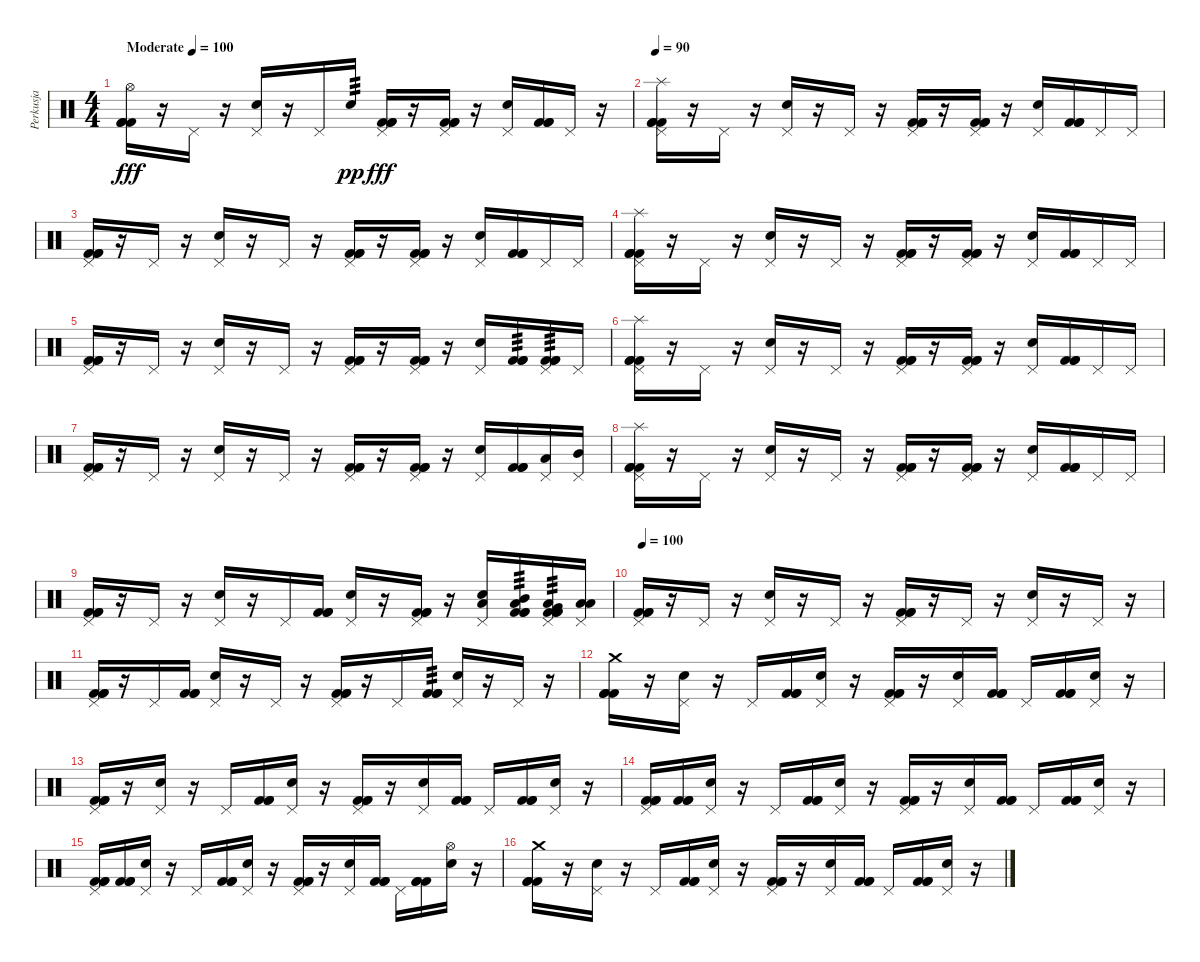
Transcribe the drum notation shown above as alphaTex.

\track ("Perkusja" "Perkusja") {instrument percussion}
\staff {score}
\articulation defaults
\ts (4 4)
\tempo (100 "Moderate")
\tempo 90
\tempo (100 "Moderate")
\clef neutral
\ks c
("Hi-Hat (open)" "Kick (hit) 2" "Kick (hit) 2" "Kick (hit) 2").16{dy fff} r.16 "Pedal Hi-Hat (hit)".16 r.16 ("Snare (hit) 2" "Pedal Hi-Hat (hit)").16 r.16 "Pedal Hi-Hat (hit)".16 "Snare (hit) 2".16{tp 3 dy pp} ("Pedal Hi-Hat (hit)" "Kick (hit) 2" "Kick (hit) 2" "Kick (hit) 2").16{dy fff} r.16 ("Pedal Hi-Hat (hit)" "Kick (hit) 2" "Kick (hit) 2" "Kick (hit) 2").16 r.16 ("Snare (hit) 2" "Pedal Hi-Hat (hit)").16 ("Kick (hit) 2" "Kick (hit) 2" "Kick (hit) 2").16 "Pedal Hi-Hat (hit)".16 r.16 |
\tempo 90
("Splash (hit)" "Pedal Hi-Hat (hit)" "Kick (hit) 2" "Kick (hit) 2" "Kick (hit) 2").16 r.16 "Pedal Hi-Hat (hit)".16 r.16 ("Snare (hit) 2" "Pedal Hi-Hat (hit)").16 r.16 "Pedal Hi-Hat (hit)".16 r.16 ("Pedal Hi-Hat (hit)" "Kick (hit) 2" "Kick (hit) 2" "Kick (hit) 2").16 r.16 ("Pedal Hi-Hat (hit)" "Kick (hit) 2" "Kick (hit) 2" "Kick (hit) 2").16 r.16 ("Snare (hit) 2" "Pedal Hi-Hat (hit)").16 ("Kick (hit) 2" "Kick (hit) 2" "Kick (hit) 2").16 "Pedal Hi-Hat (hit)".16 "Pedal Hi-Hat (hit)".16 |
("Pedal Hi-Hat (hit)" "Kick (hit) 2" "Kick (hit) 2" "Kick (hit) 2").16 r.16 "Pedal Hi-Hat (hit)".16 r.16 ("Snare (hit) 2" "Pedal Hi-Hat (hit)").16 r.16 "Pedal Hi-Hat (hit)".16 r.16 ("Pedal Hi-Hat (hit)" "Kick (hit) 2" "Kick (hit) 2" "Kick (hit) 2").16 r.16 ("Pedal Hi-Hat (hit)" "Kick (hit) 2" "Kick (hit) 2" "Kick (hit) 2").16 r.16 ("Snare (hit) 2" "Pedal Hi-Hat (hit)").16 ("Kick (hit) 2" "Kick (hit) 2" "Kick (hit) 2").16 "Pedal Hi-Hat (hit)".16 "Pedal Hi-Hat (hit)".16 |
("Splash (hit)" "Pedal Hi-Hat (hit)" "Kick (hit) 2" "Kick (hit) 2" "Kick (hit) 2").16 r.16 "Pedal Hi-Hat (hit)".16 r.16 ("Snare (hit) 2" "Pedal Hi-Hat (hit)").16 r.16 "Pedal Hi-Hat (hit)".16 r.16 ("Pedal Hi-Hat (hit)" "Kick (hit) 2" "Kick (hit) 2" "Kick (hit) 2").16 r.16 ("Pedal Hi-Hat (hit)" "Kick (hit) 2" "Kick (hit) 2" "Kick (hit) 2").16 r.16 ("Snare (hit) 2" "Pedal Hi-Hat (hit)").16 ("Kick (hit) 2" "Kick (hit) 2" "Kick (hit) 2").16 "Pedal Hi-Hat (hit)".16 "Pedal Hi-Hat (hit)".16 |
("Pedal Hi-Hat (hit)" "Kick (hit) 2" "Kick (hit) 2" "Kick (hit) 2").16 r.16 "Pedal Hi-Hat (hit)".16 r.16 ("Snare (hit) 2" "Pedal Hi-Hat (hit)").16 r.16 "Pedal Hi-Hat (hit)".16 r.16 ("Pedal Hi-Hat (hit)" "Kick (hit) 2" "Kick (hit) 2" "Kick (hit) 2").16 r.16 ("Pedal Hi-Hat (hit)" "Kick (hit) 2" "Kick (hit) 2" "Kick (hit) 2").16 r.16 ("Snare (hit) 2" "Pedal Hi-Hat (hit)").16 ("Kick (hit) 2" "Kick (hit) 2" "Kick (hit) 2").16{tp 3} ("Pedal Hi-Hat (hit)" "Kick (hit) 2" "Kick (hit) 2" "Kick (hit) 2").16{tp 3} "Pedal Hi-Hat (hit)".16 |
("Splash (hit)" "Pedal Hi-Hat (hit)" "Kick (hit) 2" "Kick (hit) 2" "Kick (hit) 2").16 r.16 "Pedal Hi-Hat (hit)".16 r.16 ("Snare (hit) 2" "Pedal Hi-Hat (hit)").16 r.16 "Pedal Hi-Hat (hit)".16 r.16 ("Pedal Hi-Hat (hit)" "Kick (hit) 2" "Kick (hit) 2" "Kick (hit) 2").16 r.16 ("Pedal Hi-Hat (hit)" "Kick (hit) 2" "Kick (hit) 2" "Kick (hit) 2").16 r.16 ("Snare (hit) 2" "Pedal Hi-Hat (hit)").16 ("Kick (hit) 2" "Kick (hit) 2" "Kick (hit) 2").16 "Pedal Hi-Hat (hit)".16 "Pedal Hi-Hat (hit)".16 |
("Pedal Hi-Hat (hit)" "Kick (hit) 2" "Kick (hit) 2" "Kick (hit) 2").16 r.16 "Pedal Hi-Hat (hit)".16 r.16 ("Snare (hit) 2" "Pedal Hi-Hat (hit)").16 r.16 "Pedal Hi-Hat (hit)".16 r.16 ("Pedal Hi-Hat (hit)" "Kick (hit) 2" "Kick (hit) 2" "Kick (hit) 2").16 r.16 ("Pedal Hi-Hat (hit)" "Kick (hit) 2" "Kick (hit) 2" "Kick (hit) 2").16 r.16 ("Snare (hit) 2" "Pedal Hi-Hat (hit)").16 ("Kick (hit) 2" "Kick (hit) 2" "Kick (hit) 2").16 ("Low Tom (hit)" "Pedal Hi-Hat (hit)").16 ("Mid Tom (hit)" "Pedal Hi-Hat (hit)").16 |
("Splash (hit)" "Pedal Hi-Hat (hit)" "Kick (hit) 2" "Kick (hit) 2" "Kick (hit) 2").16 r.16 "Pedal Hi-Hat (hit)".16 r.16 ("Snare (hit) 2" "Pedal Hi-Hat (hit)").16 r.16 "Pedal Hi-Hat (hit)".16 r.16 ("Pedal Hi-Hat (hit)" "Kick (hit) 2" "Kick (hit) 2" "Kick (hit) 2").16 r.16 ("Pedal Hi-Hat (hit)" "Kick (hit) 2" "Kick (hit) 2" "Kick (hit) 2").16 r.16 ("Snare (hit) 2" "Pedal Hi-Hat (hit)").16 ("Kick (hit) 2" "Kick (hit) 2" "Kick (hit) 2").16 "Pedal Hi-Hat (hit)".16 "Pedal Hi-Hat (hit)".16 |
("Pedal Hi-Hat (hit)" "Kick (hit) 2" "Kick (hit) 2" "Kick (hit) 2").16 r.16 "Pedal Hi-Hat (hit)".16 r.16 ("Snare (hit) 2" "Pedal Hi-Hat (hit)").16 r.16 "Pedal Hi-Hat (hit)".16 ("Kick (hit) 2" "Kick (hit) 2" "Kick (hit) 2").16 ("Snare (hit) 2" "Pedal Hi-Hat (hit)").16 r.16 ("Pedal Hi-Hat (hit)" "Kick (hit) 2" "Kick (hit) 2" "Kick (hit) 2").16 r.16 ("Snare (hit) 2" "Low Tom (hit)" "Pedal Hi-Hat (hit)").16 ("Low Tom (hit)" "Mid Tom (hit)" "Kick (hit) 2" "Kick (hit) 2" "Kick (hit) 2").16{tp 3} ("Low Tom (hit)" "Very Low Tom (hit)" "Pedal Hi-Hat (hit)" "Kick (hit) 2" "Kick (hit) 2" "Kick (hit) 2").16{tp 3} ("Low Tom (hit)" "Low Tom (hit)" "Pedal Hi-Hat (hit)").16 |
\tempo 100
("Pedal Hi-Hat (hit)" "Kick (hit) 2" "Kick (hit) 2" "Kick (hit) 2").16 r.16 "Pedal Hi-Hat (hit)".16 r.16 ("Snare (hit) 2" "Pedal Hi-Hat (hit)").16 r.16 "Pedal Hi-Hat (hit)".16 r.16 ("Pedal Hi-Hat (hit)" "Kick (hit) 2" "Kick (hit) 2" "Kick (hit) 2").16 r.16 "Pedal Hi-Hat (hit)".16 r.16 ("Snare (hit) 2" "Pedal Hi-Hat (hit)").16 r.16 "Pedal Hi-Hat (hit)".16 r.16 |
("Pedal Hi-Hat (hit)" "Kick (hit) 2" "Kick (hit) 2" "Kick (hit) 2").16 r.16 "Pedal Hi-Hat (hit)".16 ("Kick (hit) 2" "Kick (hit) 2" "Kick (hit) 2").16 ("Snare (hit) 2" "Pedal Hi-Hat (hit)").16 r.16 "Pedal Hi-Hat (hit)".16 r.16 ("Pedal Hi-Hat (hit)" "Kick (hit) 2" "Kick (hit) 2" "Kick (hit) 2").16 r.16 "Pedal Hi-Hat (hit)".16 ("Kick (hit) 2" "Kick (hit) 2" "Kick (hit) 2").16{tp 3} ("Snare (hit) 2" "Pedal Hi-Hat (hit)").16 r.16 "Pedal Hi-Hat (hit)".16 r.16 |
("Crash medium (hit)" "Kick (hit) 2" "Kick (hit) 2" "Kick (hit) 2").16 r.16 ("Snare (hit) 2" "Pedal Hi-Hat (hit)").16 r.16 "Pedal Hi-Hat (hit)".16 ("Kick (hit) 2" "Kick (hit) 2" "Kick (hit) 2").16 ("Snare (hit) 2" "Pedal Hi-Hat (hit)").16 r.16 ("Pedal Hi-Hat (hit)" "Kick (hit) 2" "Kick (hit) 2" "Kick (hit) 2").16 r.16 ("Snare (hit) 2" "Pedal Hi-Hat (hit)").16 ("Kick (hit) 2" "Kick (hit) 2" "Kick (hit) 2").16 "Pedal Hi-Hat (hit)".16 ("Kick (hit) 2" "Kick (hit) 2" "Kick (hit) 2").16 ("Snare (hit) 2" "Pedal Hi-Hat (hit)").16 r.16 |
("Pedal Hi-Hat (hit)" "Kick (hit) 2" "Kick (hit) 2" "Kick (hit) 2").16 r.16 ("Snare (hit) 2" "Pedal Hi-Hat (hit)").16 r.16 "Pedal Hi-Hat (hit)".16 ("Kick (hit) 2" "Kick (hit) 2" "Kick (hit) 2").16 ("Snare (hit) 2" "Pedal Hi-Hat (hit)").16 r.16 ("Pedal Hi-Hat (hit)" "Kick (hit) 2" "Kick (hit) 2" "Kick (hit) 2").16 r.16 ("Snare (hit) 2" "Pedal Hi-Hat (hit)").16 ("Kick (hit) 2" "Kick (hit) 2" "Kick (hit) 2").16 "Pedal Hi-Hat (hit)".16 ("Kick (hit) 2" "Kick (hit) 2" "Kick (hit) 2").16 ("Snare (hit) 2" "Pedal Hi-Hat (hit)").16 r.16 |
("Pedal Hi-Hat (hit)" "Kick (hit) 2" "Kick (hit) 2" "Kick (hit) 2").16 ("Kick (hit) 2" "Kick (hit) 2" "Kick (hit) 2").16 ("Snare (hit) 2" "Pedal Hi-Hat (hit)").16 r.16 "Pedal Hi-Hat (hit)".16 ("Kick (hit) 2" "Kick (hit) 2" "Kick (hit) 2").16 ("Snare (hit) 2" "Pedal Hi-Hat (hit)").16 r.16 ("Pedal Hi-Hat (hit)" "Kick (hit) 2" "Kick (hit) 2" "Kick (hit) 2").16 r.16 ("Snare (hit) 2" "Pedal Hi-Hat (hit)").16 ("Kick (hit) 2" "Kick (hit) 2" "Kick (hit) 2").16 "Pedal Hi-Hat (hit)".16 ("Kick (hit) 2" "Kick (hit) 2" "Kick (hit) 2").16 ("Snare (hit) 2" "Pedal Hi-Hat (hit)").16 r.16 |
("Pedal Hi-Hat (hit)" "Kick (hit) 2" "Kick (hit) 2" "Kick (hit) 2").16 ("Kick (hit) 2" "Kick (hit) 2" "Kick (hit) 2").16 ("Snare (hit) 2" "Pedal Hi-Hat (hit)").16 r.16 "Pedal Hi-Hat (hit)".16 ("Kick (hit) 2" "Kick (hit) 2" "Kick (hit) 2").16 ("Snare (hit) 2" "Pedal Hi-Hat (hit)").16 r.16 ("Pedal Hi-Hat (hit)" "Kick (hit) 2" "Kick (hit) 2" "Kick (hit) 2").16 r.16 ("Snare (hit) 2" "Pedal Hi-Hat (hit)").16 ("Kick (hit) 2" "Kick (hit) 2" "Kick (hit) 2").16 "Pedal Hi-Hat (hit)".16 ("Kick (hit) 2" "Kick (hit) 2" "Kick (hit) 2").16 ("Snare (hit) 2" "Hi-Hat (open)").16 r.16 |
("Crash medium (hit)" "Kick (hit) 2" "Kick (hit) 2" "Kick (hit) 2").16 r.16 ("Snare (hit) 2" "Pedal Hi-Hat (hit)").16 r.16 "Pedal Hi-Hat (hit)".16 ("Kick (hit) 2" "Kick (hit) 2" "Kick (hit) 2").16 ("Snare (hit) 2" "Pedal Hi-Hat (hit)").16 r.16 ("Pedal Hi-Hat (hit)" "Kick (hit) 2" "Kick (hit) 2" "Kick (hit) 2").16 r.16 ("Snare (hit) 2" "Pedal Hi-Hat (hit)").16 ("Kick (hit) 2" "Kick (hit) 2" "Kick (hit) 2").16 "Pedal Hi-Hat (hit)".16 ("Kick (hit) 2" "Kick (hit) 2" "Kick (hit) 2").16 ("Snare (hit) 2" "Pedal Hi-Hat (hit)").16 r.16
